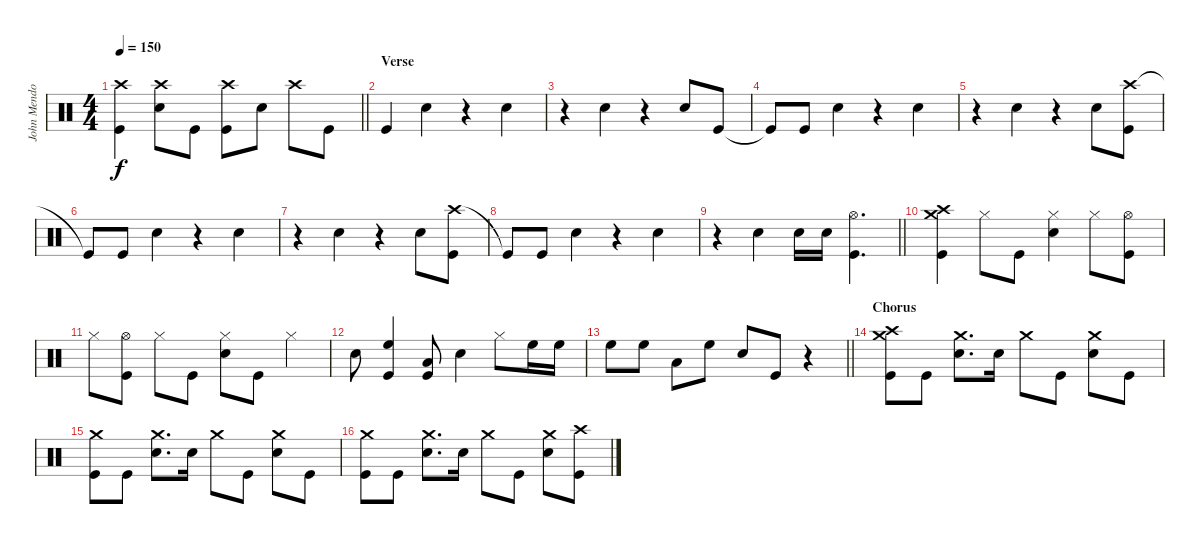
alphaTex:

\track ("John Mendoza" "John Mendo") {instrument percussion}
\staff {score}
\articulation defaults
\ts (4 4)
\tempo 150
\clef neutral
\barLineRight lightlight
\ks c
("Crash high (hit)" "Kick (hit)").4{dy f} ("Crash high (hit)" "Snare (hit) 2").8 "Kick (hit)".8 ("Crash high (hit)" "Kick (hit)").8 "Snare (hit) 2".8 "Crash high (hit)".8 "Kick (hit)".8 |
\section ("" "Verse")
"Kick (hit)".4 "Snare (hit) 2".4 r.4 "Snare (hit) 2".4 |
r.4 "Snare (hit) 2".4 r.4 "Snare (hit) 2".8 "Kick (hit)".8 |
"Kick (hit)"{t}.8 "Kick (hit)".8 "Snare (hit) 2".4 r.4 "Snare (hit) 2".4 |
r.4 "Snare (hit) 2".4 r.4 "Snare (hit) 2".8 ("Crash high (hit)" "Kick (hit)").8 |
"Kick (hit)"{t}.8 "Kick (hit)".8 "Snare (hit) 2".4 r.4 "Snare (hit) 2".4 |
r.4 "Snare (hit) 2".4 r.4 "Snare (hit) 2".8 ("Crash high (hit)" "Kick (hit)").8 |
"Kick (hit)"{t}.8 "Kick (hit)".8 "Snare (hit) 2".4 r.4 "Snare (hit) 2".4 |
\barLineRight lightlight
r.4 "Snare (hit) 2".4 "Snare (hit) 2".16 "Snare (hit) 2".16 ("Hi-Hat (open)" "Kick (hit)").4{d} |
("Crash medium (hit)" "Crash high (hit)" "Kick (hit)").4 "Hi-Hat (closed)".8 "Kick (hit)".8 ("Hi-Hat (closed)" "Snare (hit) 2").4 "Hi-Hat (closed)".8 ("Hi-Hat (open)" "Kick (hit)").8 |
"Hi-Hat (closed)".8 ("Hi-Hat (open)" "Kick (hit)").8 "Hi-Hat (closed)".8 "Kick (hit)".8 ("Hi-Hat (closed)" "Snare (hit) 2").8 "Kick (hit)".8 "Hi-Hat (closed)".4 |
"Snare (hit) 2".8 ("High Floor Tom (hit)" "Kick (hit)").4 ("Low Tom (hit)" "Kick (hit)").8 "Snare (hit) 2".4 "Hi-Hat (closed)".8 "High Floor Tom (hit)".16 "High Floor Tom (hit)".16 |
\barLineRight lightlight "High Floor Tom (hit)".8 "High Floor Tom (hit)".8 "Low Tom (hit)".8 "High Floor Tom (hit)".8 "Snare (hit) 2".8 "Kick (hit)".8
r.4 |
\section ("" "Chorus")
("Crash medium (hit)" "Crash high (hit)" "Kick (hit)").8 "Kick (hit)".8 ("Crash medium (hit)" "Snare (hit) 2").8{d} "Snare (hit) 2".16 "Crash medium (hit)".8 "Kick (hit)".8 ("Crash medium (hit)" "Snare (hit) 2").8 "Kick (hit)".8 |
("Crash medium (hit)" "Kick (hit)").8 "Kick (hit)".8 ("Crash medium (hit)" "Snare (hit) 2").8{d} "Snare (hit) 2".16 "Crash medium (hit)".8 "Kick (hit)".8 ("Crash medium (hit)" "Snare (hit) 2").8 "Kick (hit)".8 |
("Crash medium (hit)" "Kick (hit)").8 "Kick (hit)".8 ("Crash medium (hit)" "Snare (hit) 2").8{d} "Snare (hit) 2".16 "Crash medium (hit)".8 "Kick (hit)".8 ("Crash medium (hit)" "Snare (hit) 2").8 ("Crash high (hit)" "Kick (hit)").8
